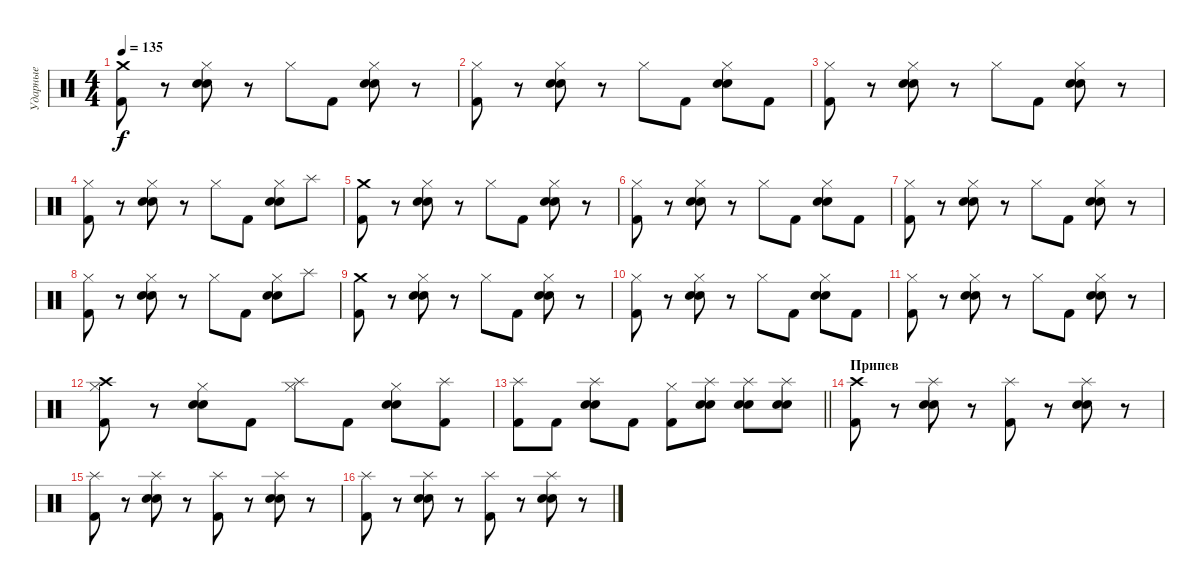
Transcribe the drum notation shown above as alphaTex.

\track ("Ударные" "Ударные") {instrument percussion}
\staff {score}
\articulation defaults
\ts (4 4)
\tempo 135
\clef neutral
\ks c
("Crash medium (hit)" "Kick (hit) 2").8{dy f} r.8 ("Hi-Hat (closed)" "Electric Snare (hit)" "Snare (hit) 2").8 r.8 "Hi-Hat (closed)".8 "Kick (hit) 2".8 ("Hi-Hat (closed)" "Electric Snare (hit)" "Snare (hit) 2").8 r.8 |
("Hi-Hat (closed)" "Kick (hit) 2").8 r.8 ("Hi-Hat (closed)" "Electric Snare (hit)" "Snare (hit) 2").8 r.8 "Hi-Hat (closed)".8 "Kick (hit) 2".8 ("Hi-Hat (closed)" "Electric Snare (hit)" "Snare (hit) 2").8 "Kick (hit) 2".8 |
("Hi-Hat (closed)" "Kick (hit) 2").8 r.8 ("Hi-Hat (closed)" "Electric Snare (hit)" "Snare (hit) 2").8 r.8 "Hi-Hat (closed)".8 "Kick (hit) 2".8 ("Hi-Hat (closed)" "Electric Snare (hit)" "Snare (hit) 2").8 r.8 |
("Hi-Hat (closed)" "Kick (hit) 2").8 r.8 ("Hi-Hat (closed)" "Electric Snare (hit)" "Snare (hit) 2").8 r.8 "Hi-Hat (closed)".8 "Kick (hit) 2".8 ("Hi-Hat (closed)" "Electric Snare (hit)" "Snare (hit) 2").8 "Splash (hit)".8 |
("Crash medium (hit)" "Kick (hit) 2").8 r.8 ("Hi-Hat (closed)" "Electric Snare (hit)" "Snare (hit) 2").8 r.8 "Hi-Hat (closed)".8 "Kick (hit) 2".8 ("Hi-Hat (closed)" "Electric Snare (hit)" "Snare (hit) 2").8 r.8 |
("Hi-Hat (closed)" "Kick (hit) 2").8 r.8 ("Hi-Hat (closed)" "Electric Snare (hit)" "Snare (hit) 2").8 r.8 "Hi-Hat (closed)".8 "Kick (hit) 2".8 ("Hi-Hat (closed)" "Electric Snare (hit)" "Snare (hit) 2").8 "Kick (hit) 2".8 |
("Hi-Hat (closed)" "Kick (hit) 2").8 r.8 ("Hi-Hat (closed)" "Electric Snare (hit)" "Snare (hit) 2").8 r.8 "Hi-Hat (closed)".8 "Kick (hit) 2".8 ("Hi-Hat (closed)" "Electric Snare (hit)" "Snare (hit) 2").8 r.8 |
("Hi-Hat (closed)" "Kick (hit) 2").8 r.8 ("Hi-Hat (closed)" "Electric Snare (hit)" "Snare (hit) 2").8 r.8 "Hi-Hat (closed)".8 "Kick (hit) 2".8 ("Hi-Hat (closed)" "Electric Snare (hit)" "Snare (hit) 2").8 "Splash (hit)".8 |
("Crash medium (hit)" "Kick (hit) 2").8 r.8 ("Hi-Hat (closed)" "Electric Snare (hit)" "Snare (hit) 2").8 r.8 "Hi-Hat (closed)".8 "Kick (hit) 2".8 ("Hi-Hat (closed)" "Electric Snare (hit)" "Snare (hit) 2").8 r.8 |
("Hi-Hat (closed)" "Kick (hit) 2").8 r.8 ("Hi-Hat (closed)" "Electric Snare (hit)" "Snare (hit) 2").8 r.8 "Hi-Hat (closed)".8 "Kick (hit) 2".8 ("Hi-Hat (closed)" "Electric Snare (hit)" "Snare (hit) 2").8 "Kick (hit) 2".8 |
("Hi-Hat (closed)" "Kick (hit) 2").8 r.8 ("Hi-Hat (closed)" "Electric Snare (hit)" "Snare (hit) 2").8 r.8 "Hi-Hat (closed)".8 "Kick (hit) 2".8 ("Hi-Hat (closed)" "Electric Snare (hit)" "Snare (hit) 2").8 r.8 |
("Crash high (hit)" "Hi-Hat (closed)" "Kick (hit) 2").8 r.8 ("Hi-Hat (closed)" "Electric Snare (hit)" "Snare (hit) 2").8 "Kick (hit) 2".8 ("Splash (hit)" "Hi-Hat (closed)").8 "Kick (hit) 2".8 ("Hi-Hat (closed)" "Electric Snare (hit)" "Snare (hit) 2").8 ("Splash (hit)" "Kick (hit) 2").8 |
\barLineRight lightlight
("Splash (hit)" "Kick (hit) 2").8 "Kick (hit) 2".8 ("Splash (hit)" "Electric Snare (hit)" "Snare (hit) 2").8 "Kick (hit) 2".8 ("Hi-Hat (closed)" "Kick (hit) 2").8 ("Splash (hit)" "Electric Snare (hit)" "Snare (hit) 2").8 ("Splash (hit)" "Electric Snare (hit)" "Snare (hit) 2").8 ("Splash (hit)" "Electric Snare (hit)" "Snare (hit) 2").8 |
\section ("" "Припев")
("Crash high (hit)" "Kick (hit) 2").8 r.8 ("Splash (hit)" "Electric Snare (hit)" "Snare (hit) 2").8 r.8 ("Splash (hit)" "Kick (hit) 2").8 r.8 ("Splash (hit)" "Electric Snare (hit)" "Snare (hit) 2").8 r.8 |
("Splash (hit)" "Kick (hit) 2").8 r.8 ("Splash (hit)" "Electric Snare (hit)" "Snare (hit) 2").8 r.8 ("Splash (hit)" "Kick (hit) 2").8 r.8 ("Splash (hit)" "Electric Snare (hit)" "Snare (hit) 2").8 r.8 |
("Splash (hit)" "Kick (hit) 2").8 r.8 ("Splash (hit)" "Electric Snare (hit)" "Snare (hit) 2").8 r.8 ("Splash (hit)" "Kick (hit) 2").8 r.8 ("Splash (hit)" "Electric Snare (hit)" "Snare (hit) 2").8 r.8
